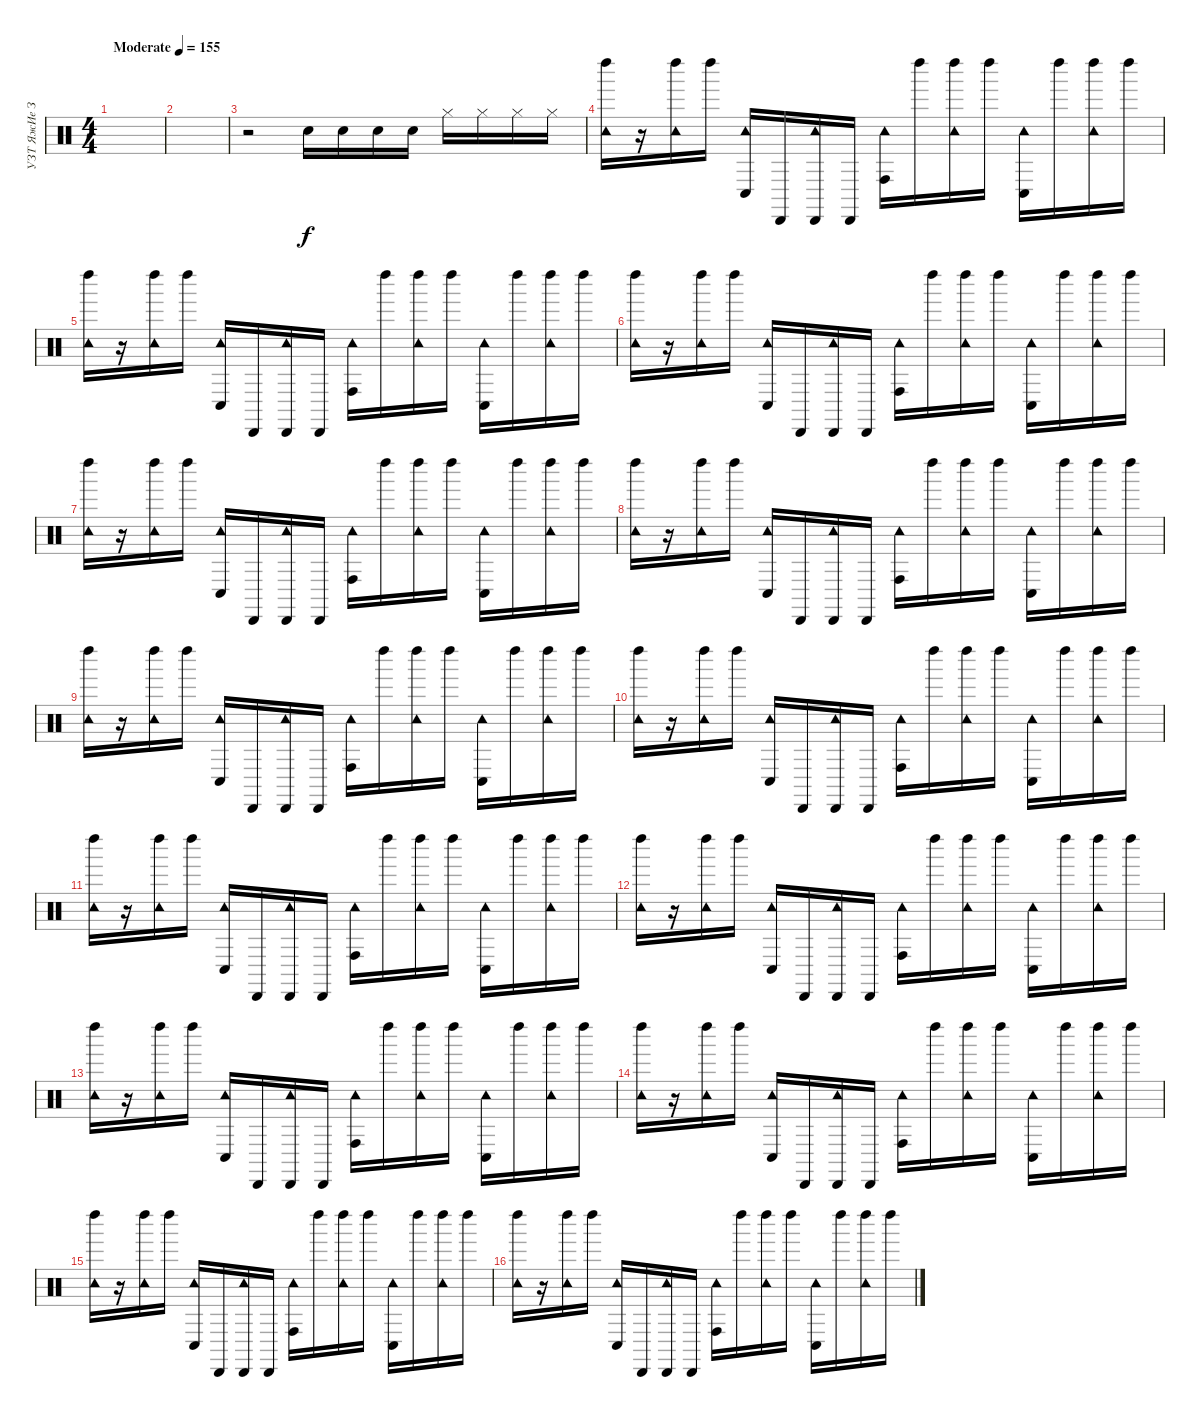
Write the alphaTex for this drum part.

\track ("УЗТ ЯжИе Зн" "УЗТ ЯжИе З") {instrument percussion}
\staff {score}
\articulation defaults
\ts (4 4)
\tempo (155 "Moderate")
\clef neutral
\ks c
|
|
r.2 "Snare (hit) 2".16 "Snare (hit) 2".16 "Snare (hit) 2".16 "Snare (hit) 2".16 "Hi-Hat (closed)".16 "Hi-Hat (closed)".16 "Hi-Hat (closed)".16 "Hi-Hat (closed)".16 |
("Tambourine (hit)" "Left Maraca (hit)").16 r.16 ("Tambourine (hit)" "Left Maraca (hit)").16 "Left Maraca (hit)".16 ("Tambourine (hit)" "Conga low (hit)").16 "Cabasa (hit)".16 ("Tambourine (hit)" "Cabasa (hit)").16 "Cabasa (hit)".16 ("Tambourine (hit)" "Conga high (hit)").16 "Left Maraca (hit)".16 ("Tambourine (hit)" "Left Maraca (hit)").16 "Left Maraca (hit)".16 ("Tambourine (hit)" "Conga low (hit)").16 "Left Maraca (hit)".16 ("Tambourine (hit)" "Left Maraca (hit)").16 "Left Maraca (hit)".16 |
("Tambourine (hit)" "Left Maraca (hit)").16 r.16 ("Tambourine (hit)" "Left Maraca (hit)").16 "Left Maraca (hit)".16 ("Tambourine (hit)" "Conga low (hit)").16 "Cabasa (hit)".16 ("Tambourine (hit)" "Cabasa (hit)").16 "Cabasa (hit)".16 ("Tambourine (hit)" "Conga high (hit)").16 "Left Maraca (hit)".16 ("Tambourine (hit)" "Left Maraca (hit)").16 "Left Maraca (hit)".16 ("Tambourine (hit)" "Conga low (hit)").16 "Left Maraca (hit)".16 ("Tambourine (hit)" "Left Maraca (hit)").16 "Left Maraca (hit)".16 |
("Tambourine (hit)" "Left Maraca (hit)").16 r.16 ("Tambourine (hit)" "Left Maraca (hit)").16 "Left Maraca (hit)".16 ("Tambourine (hit)" "Conga low (hit)").16 "Cabasa (hit)".16 ("Tambourine (hit)" "Cabasa (hit)").16 "Cabasa (hit)".16 ("Tambourine (hit)" "Conga high (hit)").16 "Left Maraca (hit)".16 ("Tambourine (hit)" "Left Maraca (hit)").16 "Left Maraca (hit)".16 ("Tambourine (hit)" "Conga low (hit)").16 "Left Maraca (hit)".16 ("Tambourine (hit)" "Left Maraca (hit)").16 "Left Maraca (hit)".16 |
("Tambourine (hit)" "Left Maraca (hit)").16 r.16 ("Tambourine (hit)" "Left Maraca (hit)").16 "Left Maraca (hit)".16 ("Tambourine (hit)" "Conga low (hit)").16 "Cabasa (hit)".16 ("Tambourine (hit)" "Cabasa (hit)").16 "Cabasa (hit)".16 ("Tambourine (hit)" "Conga high (hit)").16 "Left Maraca (hit)".16 ("Tambourine (hit)" "Left Maraca (hit)").16 "Left Maraca (hit)".16 ("Tambourine (hit)" "Conga low (hit)").16 "Left Maraca (hit)".16 ("Tambourine (hit)" "Left Maraca (hit)").16 "Left Maraca (hit)".16 |
("Tambourine (hit)" "Left Maraca (hit)").16 r.16 ("Tambourine (hit)" "Left Maraca (hit)").16 "Left Maraca (hit)".16 ("Tambourine (hit)" "Conga low (hit)").16 "Cabasa (hit)".16 ("Tambourine (hit)" "Cabasa (hit)").16 "Cabasa (hit)".16 ("Tambourine (hit)" "Conga high (hit)").16 "Left Maraca (hit)".16 ("Tambourine (hit)" "Left Maraca (hit)").16 "Left Maraca (hit)".16 ("Tambourine (hit)" "Conga low (hit)").16 "Left Maraca (hit)".16 ("Tambourine (hit)" "Left Maraca (hit)").16 "Left Maraca (hit)".16 |
("Tambourine (hit)" "Left Maraca (hit)").16 r.16 ("Tambourine (hit)" "Left Maraca (hit)").16 "Left Maraca (hit)".16 ("Tambourine (hit)" "Conga low (hit)").16 "Cabasa (hit)".16 ("Tambourine (hit)" "Cabasa (hit)").16 "Cabasa (hit)".16 ("Tambourine (hit)" "Conga high (hit)").16 "Left Maraca (hit)".16 ("Tambourine (hit)" "Left Maraca (hit)").16 "Left Maraca (hit)".16 ("Tambourine (hit)" "Conga low (hit)").16 "Left Maraca (hit)".16 ("Tambourine (hit)" "Left Maraca (hit)").16 "Left Maraca (hit)".16 |
("Tambourine (hit)" "Left Maraca (hit)").16 r.16 ("Tambourine (hit)" "Left Maraca (hit)").16 "Left Maraca (hit)".16 ("Tambourine (hit)" "Conga low (hit)").16 "Cabasa (hit)".16 ("Tambourine (hit)" "Cabasa (hit)").16 "Cabasa (hit)".16 ("Tambourine (hit)" "Conga high (hit)").16 "Left Maraca (hit)".16 ("Tambourine (hit)" "Left Maraca (hit)").16 "Left Maraca (hit)".16 ("Tambourine (hit)" "Conga low (hit)").16 "Left Maraca (hit)".16 ("Tambourine (hit)" "Left Maraca (hit)").16 "Left Maraca (hit)".16 |
("Tambourine (hit)" "Left Maraca (hit)").16 r.16 ("Tambourine (hit)" "Left Maraca (hit)").16 "Left Maraca (hit)".16 ("Tambourine (hit)" "Conga low (hit)").16 "Cabasa (hit)".16 ("Tambourine (hit)" "Cabasa (hit)").16 "Cabasa (hit)".16 ("Tambourine (hit)" "Conga high (hit)").16 "Left Maraca (hit)".16 ("Tambourine (hit)" "Left Maraca (hit)").16 "Left Maraca (hit)".16 ("Tambourine (hit)" "Conga low (hit)").16 "Left Maraca (hit)".16 ("Tambourine (hit)" "Left Maraca (hit)").16 "Left Maraca (hit)".16 |
("Tambourine (hit)" "Left Maraca (hit)").16 r.16 ("Tambourine (hit)" "Left Maraca (hit)").16 "Left Maraca (hit)".16 ("Tambourine (hit)" "Conga low (hit)").16 "Cabasa (hit)".16 ("Tambourine (hit)" "Cabasa (hit)").16 "Cabasa (hit)".16 ("Tambourine (hit)" "Conga high (hit)").16 "Left Maraca (hit)".16 ("Tambourine (hit)" "Left Maraca (hit)").16 "Left Maraca (hit)".16 ("Tambourine (hit)" "Conga low (hit)").16 "Left Maraca (hit)".16 ("Tambourine (hit)" "Left Maraca (hit)").16 "Left Maraca (hit)".16 |
("Tambourine (hit)" "Left Maraca (hit)").16 r.16 ("Tambourine (hit)" "Left Maraca (hit)").16 "Left Maraca (hit)".16 ("Tambourine (hit)" "Conga low (hit)").16 "Cabasa (hit)".16 ("Tambourine (hit)" "Cabasa (hit)").16 "Cabasa (hit)".16 ("Tambourine (hit)" "Conga high (hit)").16 "Left Maraca (hit)".16 ("Tambourine (hit)" "Left Maraca (hit)").16 "Left Maraca (hit)".16 ("Tambourine (hit)" "Conga low (hit)").16 "Left Maraca (hit)".16 ("Tambourine (hit)" "Left Maraca (hit)").16 "Left Maraca (hit)".16 |
("Tambourine (hit)" "Left Maraca (hit)").16 r.16 ("Tambourine (hit)" "Left Maraca (hit)").16 "Left Maraca (hit)".16 ("Tambourine (hit)" "Conga low (hit)").16 "Cabasa (hit)".16 ("Tambourine (hit)" "Cabasa (hit)").16 "Cabasa (hit)".16 ("Tambourine (hit)" "Conga high (hit)").16 "Left Maraca (hit)".16 ("Tambourine (hit)" "Left Maraca (hit)").16 "Left Maraca (hit)".16 ("Tambourine (hit)" "Conga low (hit)").16 "Left Maraca (hit)".16 ("Tambourine (hit)" "Left Maraca (hit)").16 "Left Maraca (hit)".16 |
("Tambourine (hit)" "Left Maraca (hit)").16 r.16 ("Tambourine (hit)" "Left Maraca (hit)").16 "Left Maraca (hit)".16 ("Tambourine (hit)" "Conga low (hit)").16 "Cabasa (hit)".16 ("Tambourine (hit)" "Cabasa (hit)").16 "Cabasa (hit)".16 ("Tambourine (hit)" "Conga high (hit)").16 "Left Maraca (hit)".16 ("Tambourine (hit)" "Left Maraca (hit)").16 "Left Maraca (hit)".16 ("Tambourine (hit)" "Conga low (hit)").16 "Left Maraca (hit)".16 ("Tambourine (hit)" "Left Maraca (hit)").16 "Left Maraca (hit)".16 |
("Tambourine (hit)" "Left Maraca (hit)").16 r.16 ("Tambourine (hit)" "Left Maraca (hit)").16 "Left Maraca (hit)".16 ("Tambourine (hit)" "Conga low (hit)").16 "Cabasa (hit)".16 ("Tambourine (hit)" "Cabasa (hit)").16 "Cabasa (hit)".16 ("Tambourine (hit)" "Conga high (hit)").16 "Left Maraca (hit)".16 ("Tambourine (hit)" "Left Maraca (hit)").16 "Left Maraca (hit)".16 ("Tambourine (hit)" "Conga low (hit)").16 "Left Maraca (hit)".16 ("Tambourine (hit)" "Left Maraca (hit)").16 "Left Maraca (hit)".16
